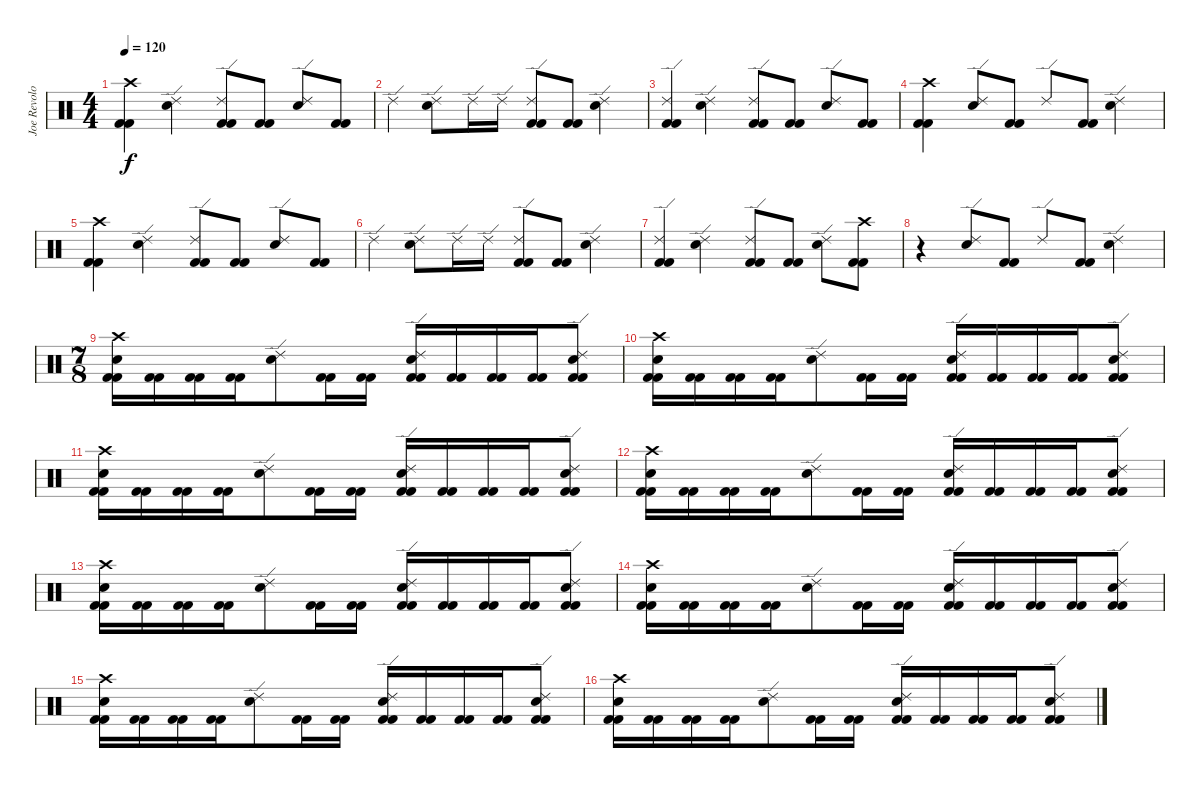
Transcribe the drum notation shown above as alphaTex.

\track ("Joe Revolo" "Joe Revolo") {instrument percussion}
\staff {score}
\articulation defaults
\ts (4 4)
\tempo 120
\clef neutral
\ks c
("Crash high (hit)" "Kick (hit) 2" "Kick (hit) 2").4{dy f} ("Ride (edge) 2" "Electric Snare (hit)").4 ("Ride (edge) 2" "Kick (hit) 2" "Kick (hit) 2").8 ("Kick (hit) 2" "Kick (hit) 2").8 ("Ride (edge) 2" "Electric Snare (hit)").8 ("Kick (hit) 2" "Kick (hit) 2").8 |
"Ride (edge) 2".4 ("Ride (edge) 2" "Electric Snare (hit)").8 "Ride (edge) 2".16 "Ride (edge) 2".16 ("Ride (edge) 2" "Kick (hit) 2" "Kick (hit) 2").8 ("Kick (hit) 2" "Kick (hit) 2").8 ("Ride (edge) 2" "Electric Snare (hit)").4 |
("Ride (edge) 2" "Kick (hit) 2" "Kick (hit) 2").4 ("Ride (edge) 2" "Electric Snare (hit)").4 ("Ride (edge) 2" "Kick (hit) 2" "Kick (hit) 2").8 ("Kick (hit) 2" "Kick (hit) 2").8 ("Ride (edge) 2" "Electric Snare (hit)").8 ("Kick (hit) 2" "Kick (hit) 2").8 |
("Crash high (hit)" "Kick (hit) 2" "Kick (hit) 2").4 ("Ride (edge) 2" "Electric Snare (hit)").8 ("Kick (hit) 2" "Kick (hit) 2").8 "Ride (edge) 2".8 ("Kick (hit) 2" "Kick (hit) 2").8 ("Ride (edge) 2" "Electric Snare (hit)").4 |
("Crash high (hit)" "Kick (hit) 2" "Kick (hit) 2").4 ("Ride (edge) 2" "Electric Snare (hit)").4 ("Ride (edge) 2" "Kick (hit) 2" "Kick (hit) 2").8 ("Kick (hit) 2" "Kick (hit) 2").8 ("Ride (edge) 2" "Electric Snare (hit)").8 ("Kick (hit) 2" "Kick (hit) 2").8 |
"Ride (edge) 2".4 ("Ride (edge) 2" "Electric Snare (hit)").8 "Ride (edge) 2".16 "Ride (edge) 2".16 ("Ride (edge) 2" "Kick (hit) 2" "Kick (hit) 2").8 ("Kick (hit) 2" "Kick (hit) 2").8 ("Ride (edge) 2" "Electric Snare (hit)").4 |
("Ride (edge) 2" "Kick (hit) 2" "Kick (hit) 2").4 ("Ride (edge) 2" "Electric Snare (hit)").4 ("Ride (edge) 2" "Kick (hit) 2" "Kick (hit) 2").8 ("Kick (hit) 2" "Kick (hit) 2").8 ("Ride (edge) 2" "Electric Snare (hit)").8 ("Crash high (hit)" "Kick (hit) 2" "Kick (hit) 2").8 |
r.4 ("Ride (edge) 2" "Electric Snare (hit)").8 ("Kick (hit) 2" "Kick (hit) 2").8 "Ride (edge) 2".8 ("Kick (hit) 2" "Kick (hit) 2").8 ("Ride (edge) 2" "Electric Snare (hit)").4 |
\ts (7 8)
("Crash high (hit)" "Electric Snare (hit)" "Kick (hit) 2" "Kick (hit) 2").16 ("Kick (hit) 2" "Kick (hit) 2").16 ("Kick (hit) 2" "Kick (hit) 2").16 ("Kick (hit) 2" "Kick (hit) 2").16 ("Ride (edge) 2" "Electric Snare (hit)").8 ("Kick (hit) 2" "Kick (hit) 2").16 ("Kick (hit) 2" "Kick (hit) 2").16 ("Ride (edge) 2" "Electric Snare (hit)" "Kick (hit) 2" "Kick (hit) 2").16 ("Kick (hit) 2" "Kick (hit) 2").16 ("Kick (hit) 2" "Kick (hit) 2").16 ("Kick (hit) 2" "Kick (hit) 2").16 ("Ride (edge) 2" "Electric Snare (hit)" "Kick (hit) 2" "Kick (hit) 2").8 |
("Crash high (hit)" "Electric Snare (hit)" "Kick (hit) 2" "Kick (hit) 2").16 ("Kick (hit) 2" "Kick (hit) 2").16 ("Kick (hit) 2" "Kick (hit) 2").16 ("Kick (hit) 2" "Kick (hit) 2").16 ("Ride (edge) 2" "Electric Snare (hit)").8 ("Kick (hit) 2" "Kick (hit) 2").16 ("Kick (hit) 2" "Kick (hit) 2").16 ("Ride (edge) 2" "Electric Snare (hit)" "Kick (hit) 2" "Kick (hit) 2").16 ("Kick (hit) 2" "Kick (hit) 2").16 ("Kick (hit) 2" "Kick (hit) 2").16 ("Kick (hit) 2" "Kick (hit) 2").16 ("Ride (edge) 2" "Electric Snare (hit)" "Kick (hit) 2" "Kick (hit) 2").8 |
("Crash high (hit)" "Electric Snare (hit)" "Kick (hit) 2" "Kick (hit) 2").16 ("Kick (hit) 2" "Kick (hit) 2").16 ("Kick (hit) 2" "Kick (hit) 2").16 ("Kick (hit) 2" "Kick (hit) 2").16 ("Ride (edge) 2" "Electric Snare (hit)").8 ("Kick (hit) 2" "Kick (hit) 2").16 ("Kick (hit) 2" "Kick (hit) 2").16 ("Ride (edge) 2" "Electric Snare (hit)" "Kick (hit) 2" "Kick (hit) 2").16 ("Kick (hit) 2" "Kick (hit) 2").16 ("Kick (hit) 2" "Kick (hit) 2").16 ("Kick (hit) 2" "Kick (hit) 2").16 ("Ride (edge) 2" "Electric Snare (hit)" "Kick (hit) 2" "Kick (hit) 2").8 |
("Crash high (hit)" "Electric Snare (hit)" "Kick (hit) 2" "Kick (hit) 2").16 ("Kick (hit) 2" "Kick (hit) 2").16 ("Kick (hit) 2" "Kick (hit) 2").16 ("Kick (hit) 2" "Kick (hit) 2").16 ("Ride (edge) 2" "Electric Snare (hit)").8 ("Kick (hit) 2" "Kick (hit) 2").16 ("Kick (hit) 2" "Kick (hit) 2").16 ("Ride (edge) 2" "Electric Snare (hit)" "Kick (hit) 2" "Kick (hit) 2").16 ("Kick (hit) 2" "Kick (hit) 2").16 ("Kick (hit) 2" "Kick (hit) 2").16 ("Kick (hit) 2" "Kick (hit) 2").16 ("Ride (edge) 2" "Electric Snare (hit)" "Kick (hit) 2" "Kick (hit) 2").8 |
("Crash high (hit)" "Electric Snare (hit)" "Kick (hit) 2" "Kick (hit) 2").16 ("Kick (hit) 2" "Kick (hit) 2").16 ("Kick (hit) 2" "Kick (hit) 2").16 ("Kick (hit) 2" "Kick (hit) 2").16 ("Ride (edge) 2" "Electric Snare (hit)").8 ("Kick (hit) 2" "Kick (hit) 2").16 ("Kick (hit) 2" "Kick (hit) 2").16 ("Ride (edge) 2" "Electric Snare (hit)" "Kick (hit) 2" "Kick (hit) 2").16 ("Kick (hit) 2" "Kick (hit) 2").16 ("Kick (hit) 2" "Kick (hit) 2").16 ("Kick (hit) 2" "Kick (hit) 2").16 ("Ride (edge) 2" "Electric Snare (hit)" "Kick (hit) 2" "Kick (hit) 2").8 |
("Crash high (hit)" "Electric Snare (hit)" "Kick (hit) 2" "Kick (hit) 2").16 ("Kick (hit) 2" "Kick (hit) 2").16 ("Kick (hit) 2" "Kick (hit) 2").16 ("Kick (hit) 2" "Kick (hit) 2").16 ("Ride (edge) 2" "Electric Snare (hit)").8 ("Kick (hit) 2" "Kick (hit) 2").16 ("Kick (hit) 2" "Kick (hit) 2").16 ("Ride (edge) 2" "Electric Snare (hit)" "Kick (hit) 2" "Kick (hit) 2").16 ("Kick (hit) 2" "Kick (hit) 2").16 ("Kick (hit) 2" "Kick (hit) 2").16 ("Kick (hit) 2" "Kick (hit) 2").16 ("Ride (edge) 2" "Electric Snare (hit)" "Kick (hit) 2" "Kick (hit) 2").8 |
("Crash high (hit)" "Electric Snare (hit)" "Kick (hit) 2" "Kick (hit) 2").16 ("Kick (hit) 2" "Kick (hit) 2").16 ("Kick (hit) 2" "Kick (hit) 2").16 ("Kick (hit) 2" "Kick (hit) 2").16 ("Ride (edge) 2" "Electric Snare (hit)").8 ("Kick (hit) 2" "Kick (hit) 2").16 ("Kick (hit) 2" "Kick (hit) 2").16 ("Ride (edge) 2" "Electric Snare (hit)" "Kick (hit) 2" "Kick (hit) 2").16 ("Kick (hit) 2" "Kick (hit) 2").16 ("Kick (hit) 2" "Kick (hit) 2").16 ("Kick (hit) 2" "Kick (hit) 2").16 ("Ride (edge) 2" "Electric Snare (hit)" "Kick (hit) 2" "Kick (hit) 2").8 |
("Crash high (hit)" "Electric Snare (hit)" "Kick (hit) 2" "Kick (hit) 2").16 ("Kick (hit) 2" "Kick (hit) 2").16 ("Kick (hit) 2" "Kick (hit) 2").16 ("Kick (hit) 2" "Kick (hit) 2").16 ("Ride (edge) 2" "Electric Snare (hit)").8 ("Kick (hit) 2" "Kick (hit) 2").16 ("Kick (hit) 2" "Kick (hit) 2").16 ("Ride (edge) 2" "Electric Snare (hit)" "Kick (hit) 2" "Kick (hit) 2").16 ("Kick (hit) 2" "Kick (hit) 2").16 ("Kick (hit) 2" "Kick (hit) 2").16 ("Kick (hit) 2" "Kick (hit) 2").16 ("Ride (edge) 2" "Electric Snare (hit)" "Kick (hit) 2" "Kick (hit) 2").8
